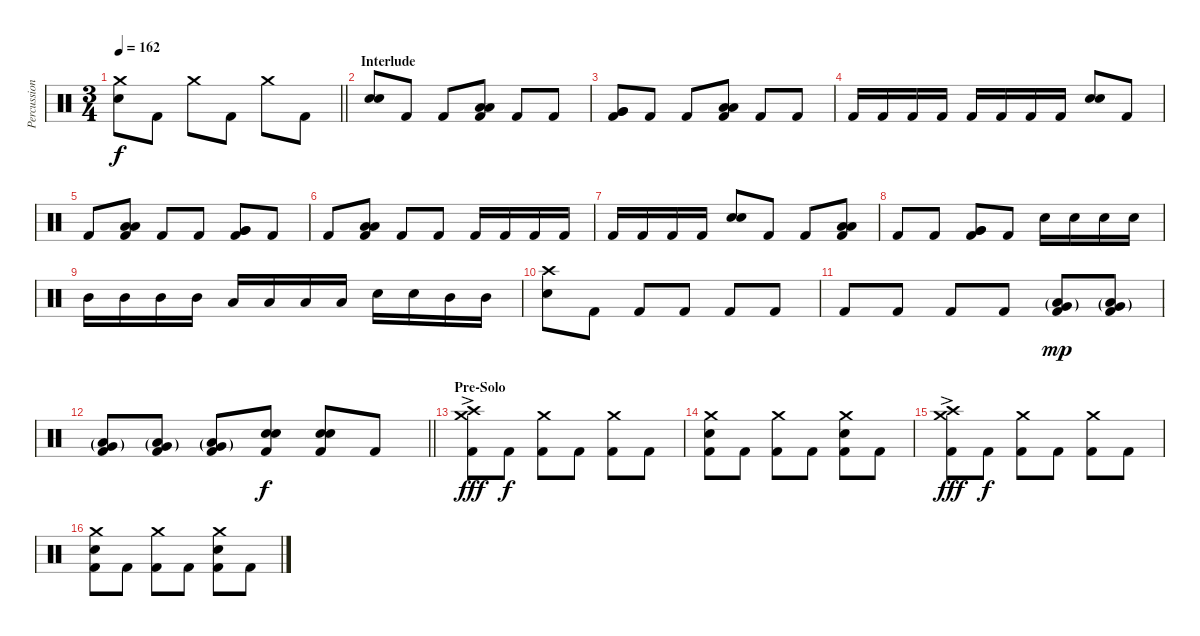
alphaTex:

\track ("Percussion" "Percussion") {instrument percussion}
\staff {score}
\articulation defaults
\ts (3 4)
\tempo 162
\clef neutral
\barLineRight lightlight
\ks c
("Crash medium (hit)" "Electric Snare (hit)").8{dy f} "Kick (hit) 2".8 "Crash medium (hit)".8 "Kick (hit) 2".8 "Crash medium (hit)".8 "Kick (hit) 2".8 |
\section ("" "Interlude")
("Electric Snare (hit)" "Electric Snare (hit)").8{bd 120} "Kick (hit) 2".8 "Kick (hit) 2".8 ("Low Tom (hit)" "Low Tom (hit)" "Kick (hit) 2").8{bd 60} "Kick (hit) 2".8 "Kick (hit) 2".8 |
("Very Low Tom (hit)" "Very Low Tom (hit)" "Kick (hit) 2").8{bd 60} "Kick (hit) 2".8 "Kick (hit) 2".8 ("Low Floor Tom (hit)" "Low Floor Tom (hit)" "Kick (hit) 2").8{bd 60} "Kick (hit) 2".8 "Kick (hit) 2".8 |
"Kick (hit) 2".16 "Kick (hit) 2".16 "Kick (hit) 2".16 "Kick (hit) 2".16 "Kick (hit) 2".16 "Kick (hit) 2".16 "Kick (hit) 2".16 "Kick (hit) 2".16 ("Electric Snare (hit)" "Electric Snare (hit)").8{bd 120} "Kick (hit) 2".8 |
"Kick (hit) 2".8 ("Low Tom (hit)" "Low Tom (hit)" "Kick (hit) 2").8{bd 60} "Kick (hit) 2".8 "Kick (hit) 2".8 ("Very Low Tom (hit)" "Very Low Tom (hit)" "Kick (hit) 2").8{bd 60} "Kick (hit) 2".8 |
"Kick (hit) 2".8 ("Low Floor Tom (hit)" "Low Floor Tom (hit)" "Kick (hit) 2").8{bd 60} "Kick (hit) 2".8 "Kick (hit) 2".8 "Kick (hit) 2".16 "Kick (hit) 2".16 "Kick (hit) 2".16 "Kick (hit) 2".16 |
"Kick (hit) 2".16 "Kick (hit) 2".16 "Kick (hit) 2".16 "Kick (hit) 2".16 ("Electric Snare (hit)" "Electric Snare (hit)").8{bd 120} "Kick (hit) 2".8 "Kick (hit) 2".8 ("Low Tom (hit)" "Low Tom (hit)" "Kick (hit) 2").8{bd 120} |
"Kick (hit) 2".8 "Kick (hit) 2".8 ("Very Low Tom (hit)" "Very Low Tom (hit)" "Kick (hit) 2").8{bd 120} "Kick (hit) 2".8 "Electric Snare (hit)".16 "Electric Snare (hit)".16 "Electric Snare (hit)".16 "Electric Snare (hit)".16 |
"Mid Tom (hit)".16 "Mid Tom (hit)".16 "Mid Tom (hit)".16 "Mid Tom (hit)".16 "Low Tom (hit)".16 "Low Tom (hit)".16 "Low Tom (hit)".16 "Low Tom (hit)".16 "Electric Snare (hit)".16 "Electric Snare (hit)".16 "Mid Tom (hit)".16 "Mid Tom (hit)".16 |
("Crash high (hit)" "Electric Snare (hit)").8 "Kick (hit) 2".8 "Kick (hit) 2".8 "Kick (hit) 2".8 "Kick (hit) 2".8 "Kick (hit) 2".8 |
"Kick (hit) 2".8 "Kick (hit) 2".8 "Kick (hit) 2".8 "Kick (hit) 2".8 ("Very Low Tom (hit)"{g} "Low Floor Tom (hit)"{g} "Kick (hit) 2").8{dy mp} ("Very Low Tom (hit)"{g} "Low Floor Tom (hit)"{g} "Kick (hit) 2").8 |
\barLineRight lightlight
("Very Low Tom (hit)"{g} "Low Floor Tom (hit)"{g} "Kick (hit) 2").8 ("Very Low Tom (hit)"{g} "Low Floor Tom (hit)"{g} "Kick (hit) 2").8 ("Very Low Tom (hit)"{g} "Low Floor Tom (hit)"{g} "Kick (hit) 2").8 ("Electric Snare (hit)" "Electric Snare (hit)" "Kick (hit) 2").8{bd 60 dy f} ("Electric Snare (hit)" "Electric Snare (hit)" "Kick (hit) 2").8{bd 60} "Kick (hit) 2".8 |
\section ("" "Pre-Solo")
("Crash high (hit)"{ac} "Crash medium (hit)" "Kick (hit) 2").8{dy fff} "Kick (hit) 2".8{dy f} ("Crash medium (hit)" "Kick (hit) 2").8 "Kick (hit) 2".8 ("Crash medium (hit)" "Kick (hit) 2").8 "Kick (hit) 2".8 |
("Crash medium (hit)" "Electric Snare (hit)" "Kick (hit) 2").8 "Kick (hit) 2".8 ("Crash medium (hit)" "Kick (hit) 2").8 "Kick (hit) 2".8 ("Crash medium (hit)" "Electric Snare (hit)" "Kick (hit) 2").8 "Kick (hit) 2".8 |
("Crash high (hit)"{ac} "Crash medium (hit)" "Kick (hit) 2").8{dy fff} "Kick (hit) 2".8{dy f} ("Crash medium (hit)" "Kick (hit) 2").8 "Kick (hit) 2".8 ("Crash medium (hit)" "Kick (hit) 2").8 "Kick (hit) 2".8 |
("Crash medium (hit)" "Electric Snare (hit)" "Kick (hit) 2").8 "Kick (hit) 2".8 ("Crash medium (hit)" "Kick (hit) 2").8 "Kick (hit) 2".8 ("Crash medium (hit)" "Electric Snare (hit)" "Kick (hit) 2").8 "Kick (hit) 2".8
